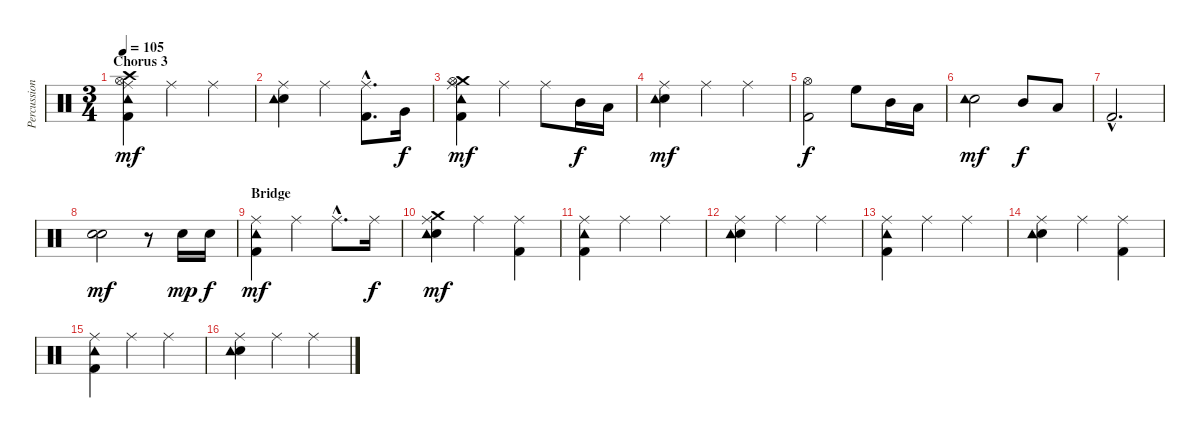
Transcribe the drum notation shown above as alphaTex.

\track ("Percussion" "Percussion") {instrument percussion}
\staff {score}
\articulation defaults
\ts (3 4)
\section ("" "Chorus 3")
\tempo 105
\clef neutral
\ks c
("Kick (hit) 2" "Tambourine (hit)" "Crash high (hit)" "Hi-Hat (open)" "Ride (middle)").4{dy mf} "Ride (middle)".4 "Ride (middle)".4 |
("Snare (hit) 2" "Tambourine (hit)" "Ride (middle)").4 "Ride (middle)".4 ("Kick (hit) 2"{hac} "Ride (middle)"{hac}).8{d} "Very Low Tom (hit)".16{dy f} |
("Kick (hit) 2" "Tambourine (hit)" "Crash medium (hit)" "Hi-Hat (open)" "Ride (middle)").4{dy mf} "Ride (middle)".4 "Ride (middle)".8 "Mid Tom (hit)".16{dy f} "Low Tom (hit)".16 |
("Snare (hit) 2" "Tambourine (hit)" "Ride (middle)").4{dy mf} "Ride (middle)".4 "Ride (middle)".4 |
("Kick (hit) 2" "Hi-Hat (open)").2{dy f} "High Floor Tom (hit)".8 "Mid Tom (hit)".16 "Low Tom (hit)".16 |
("Snare (hit) 2" "Tambourine (hit)").2{dy mf} "Mid Tom (hit)".8{dy f} "Low Tom (hit)".8 |
"Kick (hit) 2"{hac}.2{d} |
("Snare (hit) 2" "Snare (hit) 2").2{bd 240 dy mf} r.8 "Snare (hit) 2".16{dy mp} "Snare (hit) 2".16{dy f} |
\section ("" "Bridge")
("Kick (hit) 2" "Tambourine (hit)" "Ride (middle)").4{dy mf} "Ride (middle)".4 "Ride (middle)"{hac}.8{d} "Ride (middle)".16{dy f} |
("Snare (hit) 2" "Tambourine (hit)" "Crash medium (hit)" "Ride (middle)").4{dy mf} "Ride (middle)".4 ("Kick (hit) 2" "Ride (middle)").4 |
("Kick (hit) 2" "Tambourine (hit)" "Ride (middle)").4 "Ride (middle)".4 "Ride (middle)".4 |
("Snare (hit) 2" "Tambourine (hit)" "Ride (middle)").4 "Ride (middle)".4 "Ride (middle)".4 |
("Kick (hit) 2" "Tambourine (hit)" "Ride (middle)").4 "Ride (middle)".4 "Ride (middle)".4 |
("Snare (hit) 2" "Tambourine (hit)" "Ride (middle)").4 "Ride (middle)".4 ("Kick (hit) 2" "Ride (middle)").4 |
("Kick (hit) 2" "Tambourine (hit)" "Ride (middle)").4 "Ride (middle)".4 "Ride (middle)".4 |
("Snare (hit) 2" "Tambourine (hit)" "Ride (middle)").4 "Ride (middle)".4 "Ride (middle)".4
